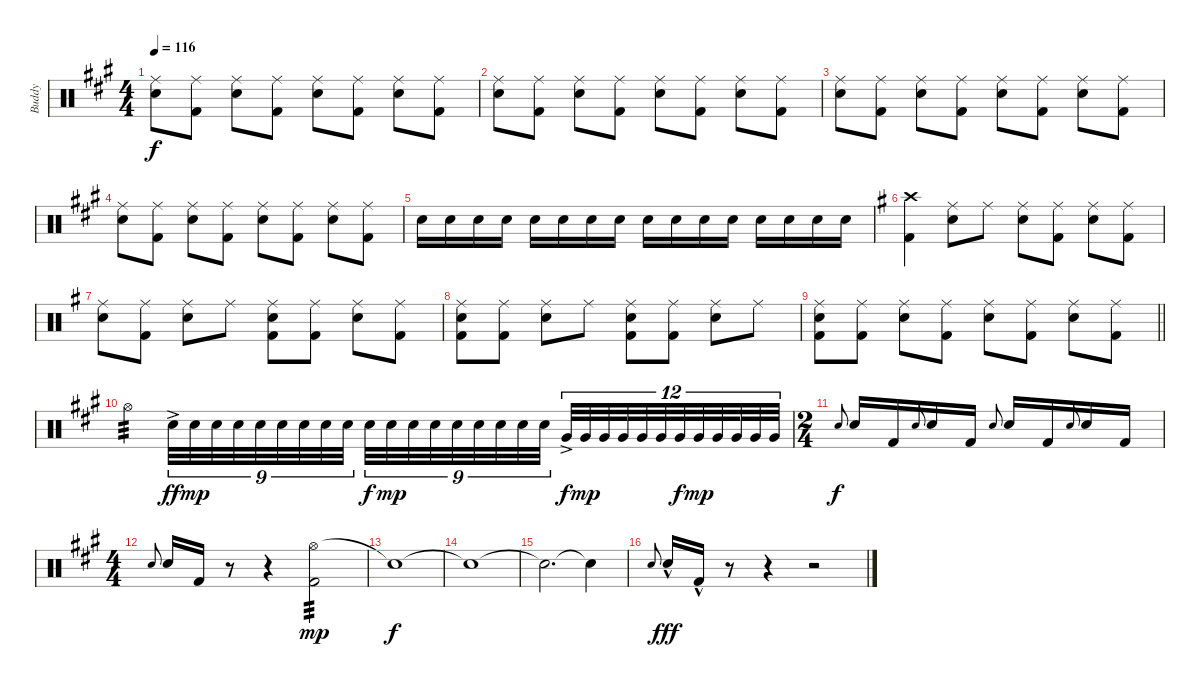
\track ("Buddy" "Buddy") {instrument percussion}
\staff {score}
\articulation defaults
\ts (4 4)
\tempo 116
\clef neutral
\ks a
("Ride (middle)" "Snare (hit) 2").8{dy f} ("Ride (middle)" "Kick (hit) 2").8 ("Ride (middle)" "Snare (hit) 2").8 ("Ride (middle)" "Kick (hit) 2").8 ("Ride (middle)" "Snare (hit) 2").8 ("Ride (middle)" "Kick (hit) 2").8 ("Ride (middle)" "Snare (hit) 2").8 ("Ride (middle)" "Kick (hit) 2").8 |
("Ride (middle)" "Snare (hit) 2").8 ("Ride (middle)" "Kick (hit) 2").8 ("Ride (middle)" "Snare (hit) 2").8 ("Ride (middle)" "Kick (hit) 2").8 ("Ride (middle)" "Snare (hit) 2").8 ("Ride (middle)" "Kick (hit) 2").8 ("Ride (middle)" "Snare (hit) 2").8 ("Ride (middle)" "Kick (hit) 2").8 |
("Ride (middle)" "Snare (hit) 2").8 ("Ride (middle)" "Kick (hit) 2").8 ("Ride (middle)" "Snare (hit) 2").8 ("Ride (middle)" "Kick (hit) 2").8 ("Ride (middle)" "Snare (hit) 2").8 ("Ride (middle)" "Kick (hit) 2").8 ("Ride (middle)" "Snare (hit) 2").8 ("Ride (middle)" "Kick (hit) 2").8 |
("Ride (middle)" "Snare (hit) 2").8 ("Ride (middle)" "Kick (hit) 2").8 ("Ride (middle)" "Snare (hit) 2").8 ("Ride (middle)" "Kick (hit) 2").8 ("Ride (middle)" "Snare (hit) 2").8 ("Ride (middle)" "Kick (hit) 2").8 ("Ride (middle)" "Snare (hit) 2").8 ("Ride (middle)" "Kick (hit) 2").8 |
"Snare (hit) 2".16 "Snare (hit) 2".16 "Snare (hit) 2".16 "Snare (hit) 2".16 "Snare (hit) 2".16 "Snare (hit) 2".16 "Snare (hit) 2".16 "Snare (hit) 2".16 "Snare (hit) 2".16 "Snare (hit) 2".16 "Snare (hit) 2".16 "Snare (hit) 2".16 "Snare (hit) 2".16 "Snare (hit) 2".16 "Snare (hit) 2".16 "Snare (hit) 2".16 |
\ks eminor
("Crash high (hit)" "Kick (hit) 2").4 ("Ride (middle)" "Snare (hit) 2").8 "Ride (middle)".8 ("Ride (middle)" "Snare (hit)").8 ("Ride (middle)" "Kick (hit) 2").8 ("Ride (middle)" "Snare (hit) 2").8 ("Ride (middle)" "Kick (hit) 2").8 |
("Ride (middle)" "Snare (hit) 2").8 ("Ride (middle)" "Kick (hit) 2").8 ("Ride (middle)" "Snare (hit) 2").8 "Ride (middle)".8 ("Ride (middle)" "Snare (hit) 2" "Kick (hit) 2").8 ("Ride (middle)" "Kick (hit) 2").8 ("Ride (middle)" "Snare (hit) 2").8 ("Ride (middle)" "Kick (hit) 2").8 |
("Ride (middle)" "Snare (hit) 2" "Kick (hit) 2").8 ("Ride (middle)" "Kick (hit) 2").8 ("Ride (middle)" "Snare (hit) 2").8 "Ride (middle)".8 ("Ride (middle)" "Snare (hit) 2" "Kick (hit) 2").8 ("Ride (middle)" "Kick (hit) 2").8 ("Ride (middle)" "Snare (hit) 2").8 "Ride (middle)".8 |
\barLineRight lightlight
("Ride (middle)" "Snare (hit) 2" "Kick (hit) 2").8 ("Ride (middle)" "Kick (hit) 2").8 ("Ride (middle)" "Snare (hit) 2").8 ("Ride (middle)" "Kick (hit) 2").8 ("Ride (middle)" "Snare (hit) 2").8 ("Ride (middle)" "Kick (hit) 2").8 ("Ride (middle)" "Snare (hit) 2").8 ("Ride (middle)" "Kick (hit) 2").8 |
\ks a "Hi-Hat (open)".4{tp 3} "Snare (hit) 2"{ac}.32{tu (9 8) dy ff} "Snare (hit) 2".32{tu (9 8) dy mp} "Snare (hit) 2".32{tu (9 8)} "Snare (hit) 2".32{tu (9 8)} "Snare (hit) 2".32{tu (9 8)} "Snare (hit) 2".32{tu (9 8)} "Snare (hit) 2".32{tu (9 8)} "Snare (hit) 2".32{tu (9 8)} "Snare (hit) 2".32{tu (9 8)} "Snare (hit) 2".32{tu (9 8) dy f} "Snare (hit) 2".32{tu (9 8) dy mp} "Snare (hit) 2".32{tu (9 8)} "Snare (hit) 2".32{tu (9 8)} "Snare (hit) 2".32{tu (9 8)} "Snare (hit) 2".32{tu (9 8)} "Snare (hit) 2".32{tu (9 8)} "Snare (hit) 2".32{tu (9 8)} "Snare (hit) 2".32{tu (9 8)} "Very Low Tom (hit)"{ac}.32{tu (12 8) dy f} "Very Low Tom (hit)".32{tu (12 8) dy mp} "Very Low Tom (hit)".32{tu (12 8) beam splitsecondary} "Very Low Tom (hit)".32{tu (12 8)} "Very Low Tom (hit)".32{tu (12 8)} "Very Low Tom (hit)".32{tu (12 8) beam splitsecondary} "Very Low Tom (hit)".32{tu (12 8) dy f} "Very Low Tom (hit)".32{tu (12 8) dy mp} "Very Low Tom (hit)".32{tu (12 8) beam splitsecondary} "Very Low Tom (hit)".32{tu (12 8)} "Very Low Tom (hit)".32{tu (12 8)} "Very Low Tom (hit)".32{tu (12 8)}
|
\ts (2 4)
"Snare (hit) 2".8{gr onbeat dy f} "Snare (hit) 2".16 "Kick (hit) 2".16 "Snare (hit) 2".8{gr onbeat} "Snare (hit) 2".16 "Kick (hit) 2".16 "Snare (hit) 2".8{gr onbeat} "Snare (hit) 2".16 "Kick (hit) 2".16 "Snare (hit) 2".8{gr onbeat} "Snare (hit) 2".16 "Kick (hit) 2".16 |
\ts (4 4)
"Snare (hit) 2".8{gr onbeat} "Snare (hit) 2".16 "Kick (hit) 2".16 r.8 r.4 ("Hi-Hat (open)" "Kick (hit) 2").2{tp 3 dy mp} |
"Snare (hit)"{t}.1{dy f} |
"Snare (hit)"{t}.1 |
"Snare (hit)"{t}.2{d} "Snare (hit)"{t}.4 |
"Snare (hit) 2".8{gr onbeat} "Snare (hit) 2"{hac}.16{dy fff} "Kick (hit) 2"{hac}.16 r.8 r.4 r.2
